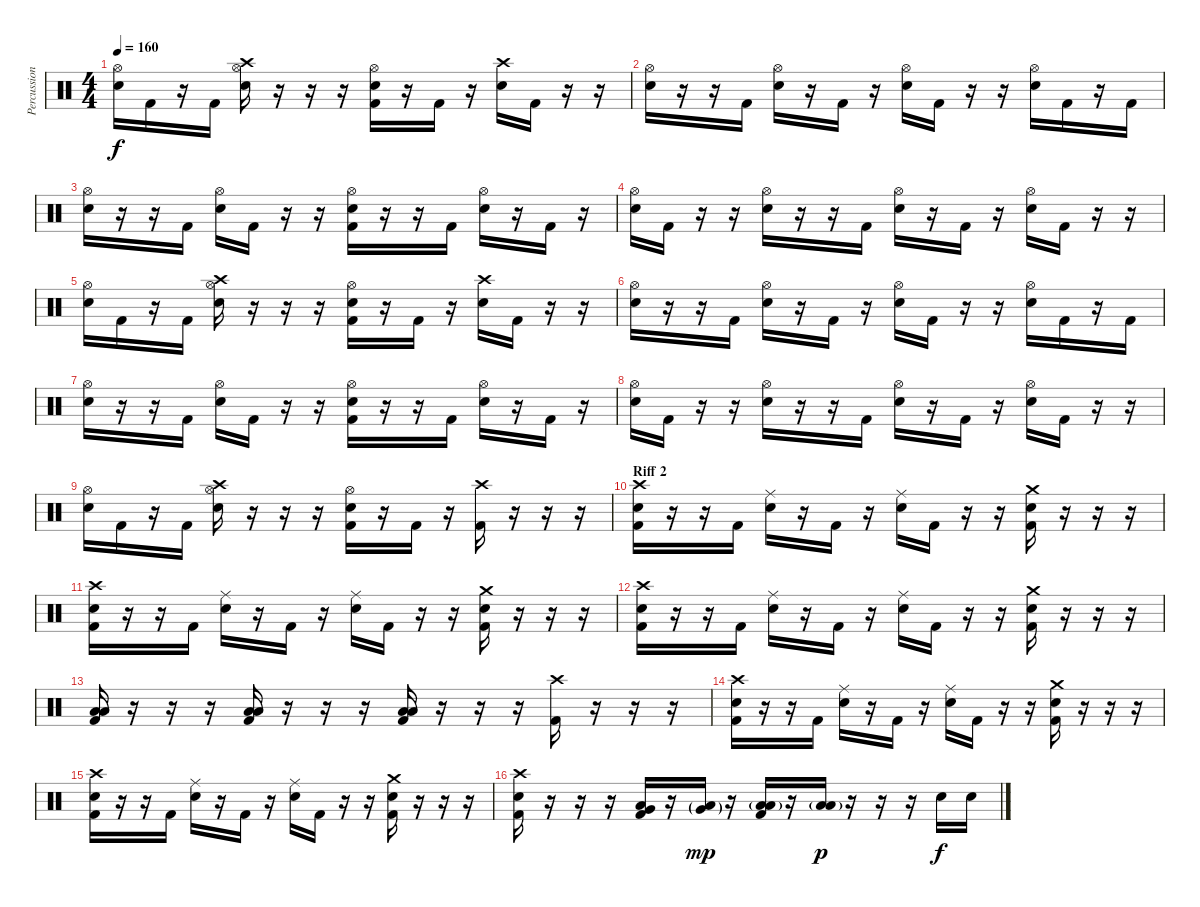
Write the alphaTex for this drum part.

\track ("Percussion" "Percussion") {instrument percussion}
\staff {score}
\articulation defaults
\ts (4 4)
\tempo 160
\clef neutral
\ks c
("Hi-Hat (open)" "Electric Snare (hit)").16{dy f} "Kick (hit) 2".16 r.16 "Kick (hit) 2".16 ("Hi-Hat (open)" "Crash high (hit)" "Electric Snare (hit)").16 r.16 r.16 r.16 ("Hi-Hat (open)" "Electric Snare (hit)" "Kick (hit) 2").16 r.16 "Kick (hit) 2".16 r.16 ("Crash high (hit)" "Electric Snare (hit)").16 "Kick (hit) 2".16 r.16 r.16 |
("Hi-Hat (open)" "Electric Snare (hit)").16 r.16 r.16 "Kick (hit) 2".16 ("Hi-Hat (open)" "Electric Snare (hit)").16 r.16 "Kick (hit) 2".16 r.16 ("Hi-Hat (open)" "Electric Snare (hit)").16 "Kick (hit) 2".16 r.16 r.16 ("Hi-Hat (open)" "Electric Snare (hit)").16 "Kick (hit) 2".16 r.16 "Kick (hit) 2".16 |
("Hi-Hat (open)" "Electric Snare (hit)").16 r.16 r.16 "Kick (hit) 2".16 ("Hi-Hat (open)" "Electric Snare (hit)").16 "Kick (hit) 2".16 r.16 r.16 ("Hi-Hat (open)" "Electric Snare (hit)" "Kick (hit) 2").16 r.16 r.16 "Kick (hit) 2".16 ("Hi-Hat (open)" "Electric Snare (hit)").16 r.16 "Kick (hit) 2".16 r.16 |
("Hi-Hat (open)" "Electric Snare (hit)").16 "Kick (hit) 2".16 r.16 r.16 ("Hi-Hat (open)" "Electric Snare (hit)").16 r.16 r.16 "Kick (hit) 2".16 ("Hi-Hat (open)" "Electric Snare (hit)").16 r.16 "Kick (hit) 2".16 r.16 ("Hi-Hat (open)" "Electric Snare (hit)").16 "Kick (hit) 2".16 r.16 r.16 |
("Hi-Hat (open)" "Electric Snare (hit)").16 "Kick (hit) 2".16 r.16 "Kick (hit) 2".16 ("Hi-Hat (open)" "Crash high (hit)" "Electric Snare (hit)").16 r.16 r.16 r.16 ("Hi-Hat (open)" "Electric Snare (hit)" "Kick (hit) 2").16 r.16 "Kick (hit) 2".16 r.16 ("Crash high (hit)" "Electric Snare (hit)").16 "Kick (hit) 2".16 r.16 r.16 |
("Hi-Hat (open)" "Electric Snare (hit)").16 r.16 r.16 "Kick (hit) 2".16 ("Hi-Hat (open)" "Electric Snare (hit)").16 r.16 "Kick (hit) 2".16 r.16 ("Hi-Hat (open)" "Electric Snare (hit)").16 "Kick (hit) 2".16 r.16 r.16 ("Hi-Hat (open)" "Electric Snare (hit)").16 "Kick (hit) 2".16 r.16 "Kick (hit) 2".16 |
("Hi-Hat (open)" "Electric Snare (hit)").16 r.16 r.16 "Kick (hit) 2".16 ("Hi-Hat (open)" "Electric Snare (hit)").16 "Kick (hit) 2".16 r.16 r.16 ("Hi-Hat (open)" "Electric Snare (hit)" "Kick (hit) 2").16 r.16 r.16 "Kick (hit) 2".16 ("Hi-Hat (open)" "Electric Snare (hit)").16 r.16 "Kick (hit) 2".16 r.16 |
("Hi-Hat (open)" "Electric Snare (hit)").16 "Kick (hit) 2".16 r.16 r.16 ("Hi-Hat (open)" "Electric Snare (hit)").16 r.16 r.16 "Kick (hit) 2".16 ("Hi-Hat (open)" "Electric Snare (hit)").16 r.16 "Kick (hit) 2".16 r.16 ("Hi-Hat (open)" "Electric Snare (hit)").16 "Kick (hit) 2".16 r.16 r.16 |
("Hi-Hat (open)" "Electric Snare (hit)").16 "Kick (hit) 2".16 r.16 "Kick (hit) 2".16 ("Hi-Hat (open)" "Crash high (hit)" "Electric Snare (hit)").16 r.16 r.16 r.16 ("Hi-Hat (open)" "Electric Snare (hit)" "Kick (hit) 2").16 r.16 "Kick (hit) 2".16 r.16 ("Crash high (hit)" "Kick (hit) 2").16 r.16 r.16 r.16 |
\section ("" "Riff 2")
("Crash high (hit)" "Electric Snare (hit)" "Kick (hit) 2").16 r.16 r.16 "Kick (hit) 2".16 ("Ride (middle)" "Electric Snare (hit)").16 r.16 "Kick (hit) 2".16 r.16 ("Ride (middle)" "Electric Snare (hit)").16 "Kick (hit) 2".16 r.16 r.16 ("Crash medium (hit)" "Electric Snare (hit)" "Kick (hit) 2").16 r.16 r.16 r.16 |
("Crash high (hit)" "Electric Snare (hit)" "Kick (hit) 2").16 r.16 r.16 "Kick (hit) 2".16 ("Ride (middle)" "Electric Snare (hit)").16 r.16 "Kick (hit) 2".16 r.16 ("Ride (middle)" "Electric Snare (hit)").16 "Kick (hit) 2".16 r.16 r.16 ("Crash medium (hit)" "Electric Snare (hit)" "Kick (hit) 2").16 r.16 r.16 r.16 |
("Crash high (hit)" "Electric Snare (hit)" "Kick (hit) 2").16 r.16 r.16 "Kick (hit) 2".16 ("Ride (middle)" "Electric Snare (hit)").16 r.16 "Kick (hit) 2".16 r.16 ("Ride (middle)" "Electric Snare (hit)").16 "Kick (hit) 2".16 r.16 r.16 ("Crash medium (hit)" "Electric Snare (hit)" "Kick (hit) 2").16 r.16 r.16 r.16 |
("Low Tom (hit)" "Low Floor Tom (hit)" "Kick (hit) 2").16 r.16 r.16 r.16 ("Low Tom (hit)" "Low Floor Tom (hit)" "Kick (hit) 2").16 r.16 r.16 r.16 ("Low Tom (hit)" "Low Floor Tom (hit)" "Kick (hit) 2").16 r.16 r.16 r.16 ("Crash high (hit)" "Kick (hit) 2").16 r.16 r.16 r.16 |
("Crash high (hit)" "Electric Snare (hit)" "Kick (hit) 2").16 r.16 r.16 "Kick (hit) 2".16 ("Ride (middle)" "Electric Snare (hit)").16 r.16 "Kick (hit) 2".16 r.16 ("Ride (middle)" "Electric Snare (hit)").16 "Kick (hit) 2".16 r.16 r.16 ("Crash medium (hit)" "Electric Snare (hit)" "Kick (hit) 2").16 r.16 r.16 r.16 |
("Crash high (hit)" "Electric Snare (hit)" "Kick (hit) 2").16 r.16 r.16 "Kick (hit) 2".16 ("Ride (middle)" "Electric Snare (hit)").16 r.16 "Kick (hit) 2".16 r.16 ("Ride (middle)" "Electric Snare (hit)").16 "Kick (hit) 2".16 r.16 r.16 ("Crash medium (hit)" "Electric Snare (hit)" "Kick (hit) 2").16 r.16 r.16 r.16 |
("Crash high (hit)" "Electric Snare (hit)" "Kick (hit) 2").16 r.16 r.16 r.16 ("Low Tom (hit)" "Very Low Tom (hit)" "Kick (hit) 2").16 r.16 ("Low Tom (hit)"{g} "Very Low Tom (hit)"{g}).16{dy mp} r.16 ("Low Tom (hit)"{g} "Low Floor Tom (hit)"{g} "Kick (hit) 2").16 r.16 ("Low Tom (hit)"{g} "Low Floor Tom (hit)"{g}).16{dy p} r.16 r.16 r.16 "Electric Snare (hit)".16{dy f} "Electric Snare (hit)".16
